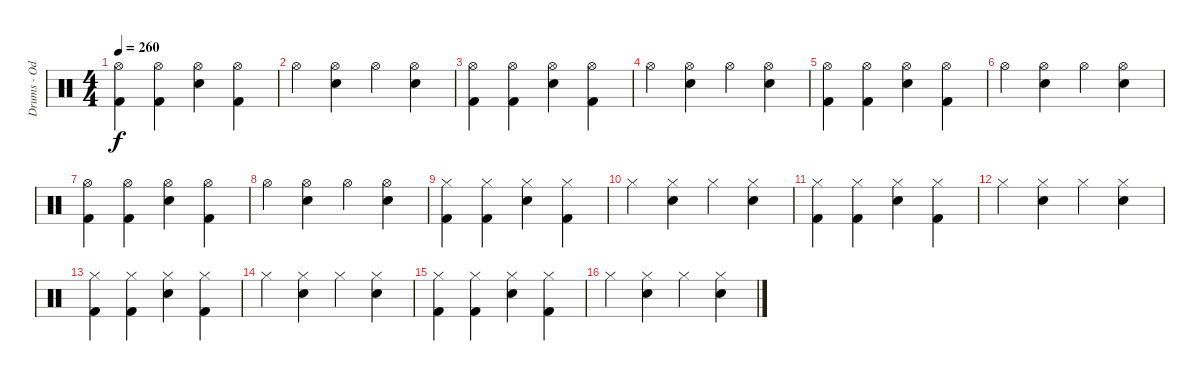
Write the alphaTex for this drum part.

\track ("Drums - Oded Perach" "Drums - Od") {instrument percussion}
\staff {score}
\articulation defaults
\ts (4 4)
\tempo 260
\clef neutral
\ks c
("Hi-Hat (open)" "Kick (hit) 2").4{dy f} ("Hi-Hat (open)" "Kick (hit) 2").4 ("Hi-Hat (open)" "Snare (hit) 2").4 ("Hi-Hat (open)" "Kick (hit) 2").4 |
"Hi-Hat (open)".4 ("Hi-Hat (open)" "Snare (hit) 2").4 "Hi-Hat (open)".4 ("Hi-Hat (open)" "Snare (hit) 2").4 |
("Hi-Hat (open)" "Kick (hit) 2").4 ("Hi-Hat (open)" "Kick (hit) 2").4 ("Hi-Hat (open)" "Snare (hit) 2").4 ("Hi-Hat (open)" "Kick (hit) 2").4 |
"Hi-Hat (open)".4 ("Hi-Hat (open)" "Snare (hit) 2").4 "Hi-Hat (open)".4 ("Hi-Hat (open)" "Snare (hit) 2").4 |
("Hi-Hat (open)" "Kick (hit) 2").4 ("Hi-Hat (open)" "Kick (hit) 2").4 ("Hi-Hat (open)" "Snare (hit) 2").4 ("Hi-Hat (open)" "Kick (hit) 2").4 |
"Hi-Hat (open)".4 ("Hi-Hat (open)" "Snare (hit) 2").4 "Hi-Hat (open)".4 ("Hi-Hat (open)" "Snare (hit) 2").4 |
("Hi-Hat (open)" "Kick (hit) 2").4 ("Hi-Hat (open)" "Kick (hit) 2").4 ("Hi-Hat (open)" "Snare (hit) 2").4 ("Hi-Hat (open)" "Kick (hit) 2").4 |
"Hi-Hat (open)".4 ("Hi-Hat (open)" "Snare (hit) 2").4 "Hi-Hat (open)".4 ("Hi-Hat (open)" "Snare (hit) 2").4 |
("Hi-Hat (closed)" "Kick (hit) 2").4 ("Hi-Hat (closed)" "Kick (hit) 2").4 ("Hi-Hat (closed)" "Snare (hit) 2").4 ("Hi-Hat (closed)" "Kick (hit) 2").4 |
"Hi-Hat (closed)".4 ("Hi-Hat (closed)" "Snare (hit) 2").4 "Hi-Hat (closed)".4 ("Hi-Hat (closed)" "Snare (hit) 2").4 |
("Hi-Hat (closed)" "Kick (hit) 2").4 ("Hi-Hat (closed)" "Kick (hit) 2").4 ("Hi-Hat (closed)" "Snare (hit) 2").4 ("Hi-Hat (closed)" "Kick (hit) 2").4 |
"Hi-Hat (closed)".4 ("Hi-Hat (closed)" "Snare (hit) 2").4 "Hi-Hat (closed)".4 ("Hi-Hat (closed)" "Snare (hit) 2").4 |
("Hi-Hat (closed)" "Kick (hit) 2").4 ("Hi-Hat (closed)" "Kick (hit) 2").4 ("Hi-Hat (closed)" "Snare (hit) 2").4 ("Hi-Hat (closed)" "Kick (hit) 2").4 |
"Hi-Hat (closed)".4 ("Hi-Hat (closed)" "Snare (hit) 2").4 "Hi-Hat (closed)".4 ("Hi-Hat (closed)" "Snare (hit) 2").4 |
("Hi-Hat (closed)" "Kick (hit) 2").4 ("Hi-Hat (closed)" "Kick (hit) 2").4 ("Hi-Hat (closed)" "Snare (hit) 2").4 ("Hi-Hat (closed)" "Kick (hit) 2").4 |
"Hi-Hat (closed)".4 ("Hi-Hat (closed)" "Snare (hit) 2").4 "Hi-Hat (closed)".4 ("Hi-Hat (closed)" "Snare (hit) 2").4
